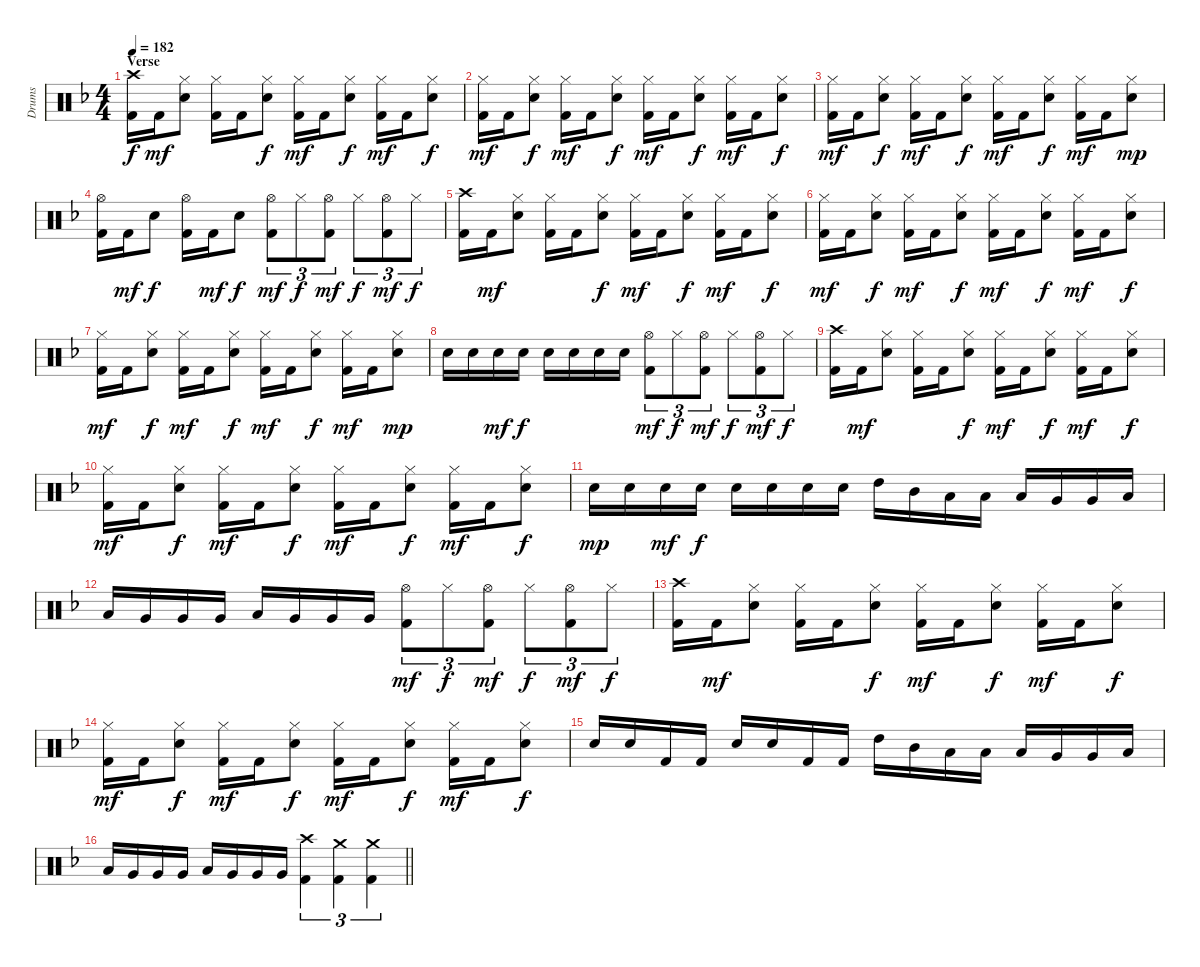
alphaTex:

\track ("Drums" "Drums") {instrument percussion}
\staff {score}
\articulation defaults
\ts (4 4)
\section ("" "Verse")
\tempo 182
\clef neutral
\ks dminor
("Crash high (hit)" "Kick (hit) 2").16{dy f} "Kick (hit) 2".16{dy mf} ("Hi-Hat (closed)" "Snare (hit) 2").8 ("Hi-Hat (closed)" "Kick (hit) 2").16 "Kick (hit) 2".16 ("Hi-Hat (closed)" "Snare (hit) 2").8{dy f} ("Hi-Hat (closed)" "Kick (hit) 2").16{dy mf} "Kick (hit) 2".16 ("Hi-Hat (closed)" "Snare (hit) 2").8{dy f} ("Hi-Hat (closed)" "Kick (hit) 2").16{dy mf} "Kick (hit) 2".16 ("Hi-Hat (closed)" "Snare (hit) 2").8{dy f} |
("Hi-Hat (closed)" "Kick (hit) 2").16{dy mf} "Kick (hit) 2".16 ("Hi-Hat (closed)" "Snare (hit) 2").8{dy f} ("Hi-Hat (closed)" "Kick (hit) 2").16{dy mf} "Kick (hit) 2".16 ("Hi-Hat (closed)" "Snare (hit) 2").8{dy f} ("Hi-Hat (closed)" "Kick (hit) 2").16{dy mf} "Kick (hit) 2".16 ("Hi-Hat (closed)" "Snare (hit) 2").8{dy f} ("Hi-Hat (closed)" "Kick (hit) 2").16{dy mf} "Kick (hit) 2".16 ("Hi-Hat (closed)" "Snare (hit) 2").8{dy f} |
("Hi-Hat (closed)" "Kick (hit) 2").16{dy mf} "Kick (hit) 2".16 ("Hi-Hat (closed)" "Snare (hit) 2").8{dy f} ("Hi-Hat (closed)" "Kick (hit) 2").16{dy mf} "Kick (hit) 2".16 ("Hi-Hat (closed)" "Snare (hit) 2").8{dy f} ("Hi-Hat (closed)" "Kick (hit) 2").16{dy mf} "Kick (hit) 2".16 ("Hi-Hat (closed)" "Snare (hit) 2").8{dy f} ("Hi-Hat (closed)" "Kick (hit) 2").16{dy mf} "Kick (hit) 2".16 ("Hi-Hat (closed)" "Snare (hit) 2").8{dy mp} |
("Hi-Hat (open)" "Kick (hit) 2").16 "Kick (hit) 2".16{dy mf} "Snare (hit) 2".8{dy f} ("Hi-Hat (open)" "Kick (hit) 2").16 "Kick (hit) 2".16{dy mf} "Snare (hit) 2".8{dy f} ("Hi-Hat (open)" "Kick (hit) 2").8{tu (3 2) dy mf} "Hi-Hat (closed)".8{tu (3 2) dy f} ("Hi-Hat (open)" "Kick (hit) 2").8{tu (3 2) dy mf} "Hi-Hat (closed)".8{tu (3 2) dy f} ("Hi-Hat (open)" "Kick (hit) 2").8{tu (3 2) dy mf} "Hi-Hat (closed)".8{tu (3 2) dy f} |
\ks f
("Crash high (hit)" "Kick (hit) 2").16 "Kick (hit) 2".16{dy mf} ("Hi-Hat (closed)" "Snare (hit) 2").8 ("Hi-Hat (closed)" "Kick (hit) 2").16 "Kick (hit) 2".16 ("Hi-Hat (closed)" "Snare (hit) 2").8{dy f} ("Hi-Hat (closed)" "Kick (hit) 2").16{dy mf} "Kick (hit) 2".16 ("Hi-Hat (closed)" "Snare (hit) 2").8{dy f} ("Hi-Hat (closed)" "Kick (hit) 2").16{dy mf} "Kick (hit) 2".16 ("Hi-Hat (closed)" "Snare (hit) 2").8{dy f} |
("Hi-Hat (closed)" "Kick (hit) 2").16{dy mf} "Kick (hit) 2".16 ("Hi-Hat (closed)" "Snare (hit) 2").8{dy f} ("Hi-Hat (closed)" "Kick (hit) 2").16{dy mf} "Kick (hit) 2".16 ("Hi-Hat (closed)" "Snare (hit) 2").8{dy f} ("Hi-Hat (closed)" "Kick (hit) 2").16{dy mf} "Kick (hit) 2".16 ("Hi-Hat (closed)" "Snare (hit) 2").8{dy f} ("Hi-Hat (closed)" "Kick (hit) 2").16{dy mf} "Kick (hit) 2".16 ("Hi-Hat (closed)" "Snare (hit) 2").8{dy f} |
("Hi-Hat (closed)" "Kick (hit) 2").16{dy mf} "Kick (hit) 2".16 ("Hi-Hat (closed)" "Snare (hit) 2").8{dy f} ("Hi-Hat (closed)" "Kick (hit) 2").16{dy mf} "Kick (hit) 2".16 ("Hi-Hat (closed)" "Snare (hit) 2").8{dy f} ("Hi-Hat (closed)" "Kick (hit) 2").16{dy mf} "Kick (hit) 2".16 ("Hi-Hat (closed)" "Snare (hit) 2").8{dy f} ("Hi-Hat (closed)" "Kick (hit) 2").16{dy mf} "Kick (hit) 2".16 ("Hi-Hat (closed)" "Snare (hit) 2").8{dy mp} |
"Snare (hit) 2".16 "Snare (hit) 2".16 "Snare (hit) 2".16{dy mf} "Snare (hit) 2".16{dy f} "Snare (hit) 2".16 "Snare (hit) 2".16 "Snare (hit) 2".16 "Snare (hit) 2".16 ("Hi-Hat (open)" "Kick (hit) 2").8{tu (3 2) dy mf} "Hi-Hat (closed)".8{tu (3 2) dy f} ("Hi-Hat (open)" "Kick (hit) 2").8{tu (3 2) dy mf} "Hi-Hat (closed)".8{tu (3 2) dy f} ("Hi-Hat (open)" "Kick (hit) 2").8{tu (3 2) dy mf} "Hi-Hat (closed)".8{tu (3 2) dy f} |
("Crash high (hit)" "Kick (hit) 2").16 "Kick (hit) 2".16{dy mf} ("Hi-Hat (closed)" "Snare (hit) 2").8 ("Hi-Hat (closed)" "Kick (hit) 2").16 "Kick (hit) 2".16 ("Hi-Hat (closed)" "Snare (hit) 2").8{dy f} ("Hi-Hat (closed)" "Kick (hit) 2").16{dy mf} "Kick (hit) 2".16 ("Hi-Hat (closed)" "Snare (hit) 2").8{dy f} ("Hi-Hat (closed)" "Kick (hit) 2").16{dy mf} "Kick (hit) 2".16 ("Hi-Hat (closed)" "Snare (hit) 2").8{dy f} |
("Hi-Hat (closed)" "Kick (hit) 2").16{dy mf} "Kick (hit) 2".16 ("Hi-Hat (closed)" "Snare (hit) 2").8{dy f} ("Hi-Hat (closed)" "Kick (hit) 2").16{dy mf} "Kick (hit) 2".16 ("Hi-Hat (closed)" "Snare (hit) 2").8{dy f} ("Hi-Hat (closed)" "Kick (hit) 2").16{dy mf} "Kick (hit) 2".16 ("Hi-Hat (closed)" "Snare (hit) 2").8{dy f} ("Hi-Hat (closed)" "Kick (hit) 2").16{dy mf} "Kick (hit) 2".16 ("Hi-Hat (closed)" "Snare (hit) 2").8{dy f} |
"Snare (hit) 2".16{dy mp} "Snare (hit) 2".16 "Snare (hit) 2".16{dy mf} "Snare (hit) 2".16{dy f} "Snare (hit) 2".16 "Snare (hit) 2".16 "Snare (hit) 2".16 "Snare (hit) 2".16 "High Tom (hit)".16 "Mid Tom (hit)".16 "Low Tom (hit)".16 "Low Tom (hit)".16 "Low Tom (hit)".16 "Very Low Tom (hit)".16 "Very Low Tom (hit)".16 "Low Tom (hit)".16 |
"Low Tom (hit)".16 "Very Low Tom (hit)".16 "Very Low Tom (hit)".16 "Very Low Tom (hit)".16 "Low Tom (hit)".16 "Very Low Tom (hit)".16 "Very Low Tom (hit)".16 "Very Low Tom (hit)".16 ("Hi-Hat (open)" "Kick (hit) 2").8{tu (3 2) dy mf} "Hi-Hat (closed)".8{tu (3 2) dy f} ("Hi-Hat (open)" "Kick (hit) 2").8{tu (3 2) dy mf} "Hi-Hat (closed)".8{tu (3 2) dy f} ("Hi-Hat (open)" "Kick (hit) 2").8{tu (3 2) dy mf} "Hi-Hat (closed)".8{tu (3 2) dy f} |
("Crash high (hit)" "Kick (hit) 2").16 "Kick (hit) 2".16{dy mf} ("Hi-Hat (closed)" "Snare (hit) 2").8 ("Hi-Hat (closed)" "Kick (hit) 2").16 "Kick (hit) 2".16 ("Hi-Hat (closed)" "Snare (hit) 2").8{dy f} ("Hi-Hat (closed)" "Kick (hit) 2").16{dy mf} "Kick (hit) 2".16 ("Hi-Hat (closed)" "Snare (hit) 2").8{dy f} ("Hi-Hat (closed)" "Kick (hit) 2").16{dy mf} "Kick (hit) 2".16 ("Hi-Hat (closed)" "Snare (hit) 2").8{dy f} |
("Hi-Hat (closed)" "Kick (hit) 2").16{dy mf} "Kick (hit) 2".16 ("Hi-Hat (closed)" "Snare (hit) 2").8{dy f} ("Hi-Hat (closed)" "Kick (hit) 2").16{dy mf} "Kick (hit) 2".16 ("Hi-Hat (closed)" "Snare (hit) 2").8{dy f} ("Hi-Hat (closed)" "Kick (hit) 2").16{dy mf} "Kick (hit) 2".16 ("Hi-Hat (closed)" "Snare (hit) 2").8{dy f} ("Hi-Hat (closed)" "Kick (hit) 2").16{dy mf} "Kick (hit) 2".16 ("Hi-Hat (closed)" "Snare (hit) 2").8{dy f} |
"Snare (hit) 2".16 "Snare (hit) 2".16 "Kick (hit) 2".16 "Kick (hit) 2".16 "Snare (hit) 2".16 "Snare (hit) 2".16 "Kick (hit) 2".16 "Kick (hit) 2".16 "High Tom (hit)".16 "Mid Tom (hit)".16 "Low Tom (hit)".16 "Low Tom (hit)".16 "Low Tom (hit)".16 "Very Low Tom (hit)".16 "Very Low Tom (hit)".16 "Low Tom (hit)".16 |
\barLineRight lightlight "Low Tom (hit)".16 "Very Low Tom (hit)".16 "Very Low Tom (hit)".16 "Very Low Tom (hit)".16 "Low Tom (hit)".16 "Very Low Tom (hit)".16 "Very Low Tom (hit)".16 "Very Low Tom (hit)".16
("Crash high (hit)" "Kick (hit) 2").4{tu (3 2)} ("Crash medium (hit)" "Kick (hit) 2").4{tu (3 2)} ("Crash medium (hit)" "Kick (hit) 2").4{tu (3 2)}
